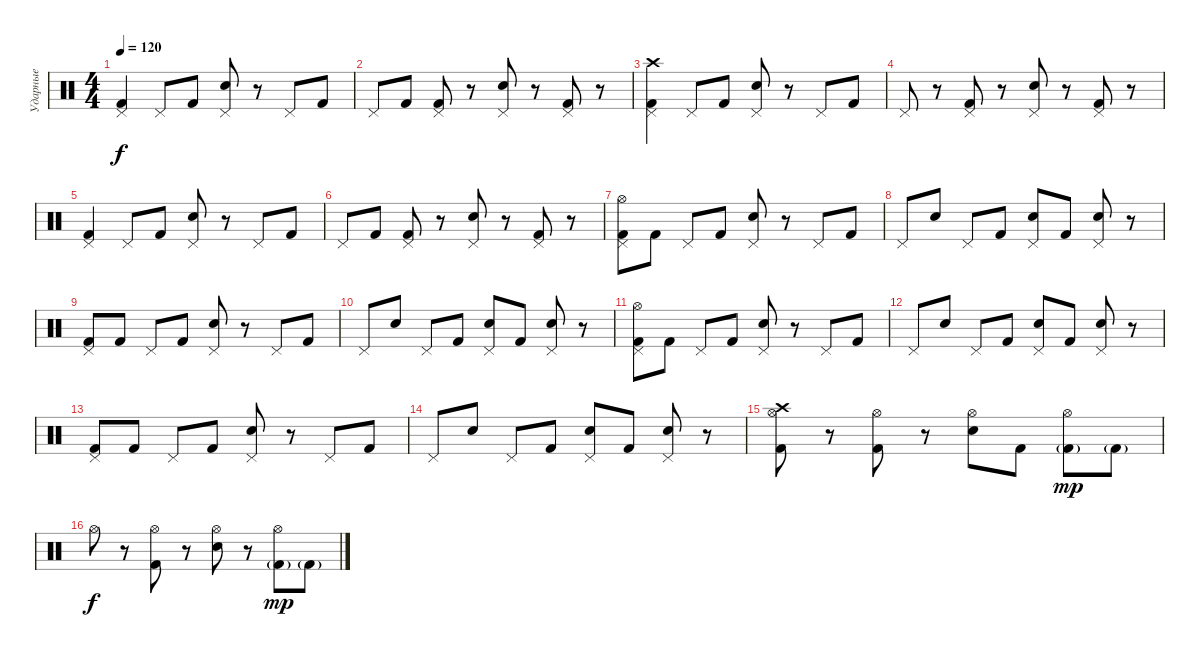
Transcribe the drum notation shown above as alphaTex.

\track ("Ударные" "Ударные") {instrument percussion}
\staff {score}
\articulation defaults
\ts (4 4)
\tempo 120
\clef neutral
\ks c
("Pedal Hi-Hat (hit)" "Kick (hit) 2").4{dy f} "Pedal Hi-Hat (hit)".8 "Kick (hit) 2".8 ("Pedal Hi-Hat (hit)" "Electric Snare (hit)").8 r.8 "Pedal Hi-Hat (hit)".8 "Kick (hit) 2".8 |
"Pedal Hi-Hat (hit)".8 "Kick (hit) 2".8 ("Pedal Hi-Hat (hit)" "Kick (hit) 2").8 r.8 ("Pedal Hi-Hat (hit)" "Electric Snare (hit)").8 r.8 ("Pedal Hi-Hat (hit)" "Kick (hit) 2").8 r.8 |
("Pedal Hi-Hat (hit)" "Crash high (hit)" "Kick (hit) 2").4 "Pedal Hi-Hat (hit)".8 "Kick (hit) 2".8 ("Pedal Hi-Hat (hit)" "Electric Snare (hit)").8 r.8 "Pedal Hi-Hat (hit)".8 "Kick (hit) 2".8 |
"Pedal Hi-Hat (hit)".8 r.8 ("Pedal Hi-Hat (hit)" "Kick (hit) 2").8 r.8 ("Pedal Hi-Hat (hit)" "Electric Snare (hit)").8 r.8 ("Pedal Hi-Hat (hit)" "Kick (hit) 2").8 r.8 |
("Pedal Hi-Hat (hit)" "Kick (hit) 2").4 "Pedal Hi-Hat (hit)".8 "Kick (hit) 2".8 ("Pedal Hi-Hat (hit)" "Electric Snare (hit)").8 r.8 "Pedal Hi-Hat (hit)".8 "Kick (hit) 2".8 |
"Pedal Hi-Hat (hit)".8 "Kick (hit) 2".8 ("Pedal Hi-Hat (hit)" "Kick (hit) 2").8 r.8 ("Pedal Hi-Hat (hit)" "Electric Snare (hit)").8 r.8 ("Pedal Hi-Hat (hit)" "Kick (hit) 2").8 r.8 |
("Pedal Hi-Hat (hit)" "Hi-Hat (open)" "Kick (hit) 2").8 "Kick (hit) 2".8 "Pedal Hi-Hat (hit)".8 "Kick (hit) 2".8 ("Pedal Hi-Hat (hit)" "Electric Snare (hit)").8 r.8 "Pedal Hi-Hat (hit)".8 "Kick (hit) 2".8 |
"Pedal Hi-Hat (hit)".8 "Electric Snare (hit)".8 "Pedal Hi-Hat (hit)".8 "Kick (hit) 2".8 ("Pedal Hi-Hat (hit)" "Electric Snare (hit)").8 "Kick (hit) 2".8 ("Pedal Hi-Hat (hit)" "Electric Snare (hit)").8 r.8 |
("Pedal Hi-Hat (hit)" "Kick (hit) 2").8 "Kick (hit) 2".8 "Pedal Hi-Hat (hit)".8 "Kick (hit) 2".8 ("Pedal Hi-Hat (hit)" "Electric Snare (hit)").8 r.8 "Pedal Hi-Hat (hit)".8 "Kick (hit) 2".8 |
"Pedal Hi-Hat (hit)".8 "Electric Snare (hit)".8 "Pedal Hi-Hat (hit)".8 "Kick (hit) 2".8 ("Pedal Hi-Hat (hit)" "Electric Snare (hit)").8 "Kick (hit) 2".8 ("Pedal Hi-Hat (hit)" "Electric Snare (hit)").8 r.8 |
("Pedal Hi-Hat (hit)" "Hi-Hat (open)" "Kick (hit) 2").8 "Kick (hit) 2".8 "Pedal Hi-Hat (hit)".8 "Kick (hit) 2".8 ("Pedal Hi-Hat (hit)" "Electric Snare (hit)").8 r.8 "Pedal Hi-Hat (hit)".8 "Kick (hit) 2".8 |
"Pedal Hi-Hat (hit)".8 "Electric Snare (hit)".8 "Pedal Hi-Hat (hit)".8 "Kick (hit) 2".8 ("Pedal Hi-Hat (hit)" "Electric Snare (hit)").8 "Kick (hit) 2".8 ("Pedal Hi-Hat (hit)" "Electric Snare (hit)").8 r.8 |
("Pedal Hi-Hat (hit)" "Kick (hit) 2").8 "Kick (hit) 2".8 "Pedal Hi-Hat (hit)".8 "Kick (hit) 2".8 ("Pedal Hi-Hat (hit)" "Electric Snare (hit)").8 r.8 "Pedal Hi-Hat (hit)".8 "Kick (hit) 2".8 |
"Pedal Hi-Hat (hit)".8 "Electric Snare (hit)".8 "Pedal Hi-Hat (hit)".8 "Kick (hit) 2".8 ("Pedal Hi-Hat (hit)" "Electric Snare (hit)").8 "Kick (hit) 2".8 ("Pedal Hi-Hat (hit)" "Electric Snare (hit)").8 r.8 |
("Hi-Hat (open)" "Crash high (hit)" "Kick (hit) 2").8 r.8 ("Hi-Hat (open)" "Kick (hit) 2").8 r.8 ("Hi-Hat (open)" "Electric Snare (hit)").8 "Kick (hit) 2".8 ("Hi-Hat (open)" "Kick (hit) 2"{g}).8{dy mp} "Kick (hit) 2"{g}.8 |
"Hi-Hat (open)".8{dy f} r.8 ("Hi-Hat (open)" "Kick (hit) 2").8 r.8 ("Hi-Hat (open)" "Electric Snare (hit)").8 r.8 ("Hi-Hat (open)" "Kick (hit) 2"{g}).8{dy mp} "Kick (hit) 2"{g}.8
